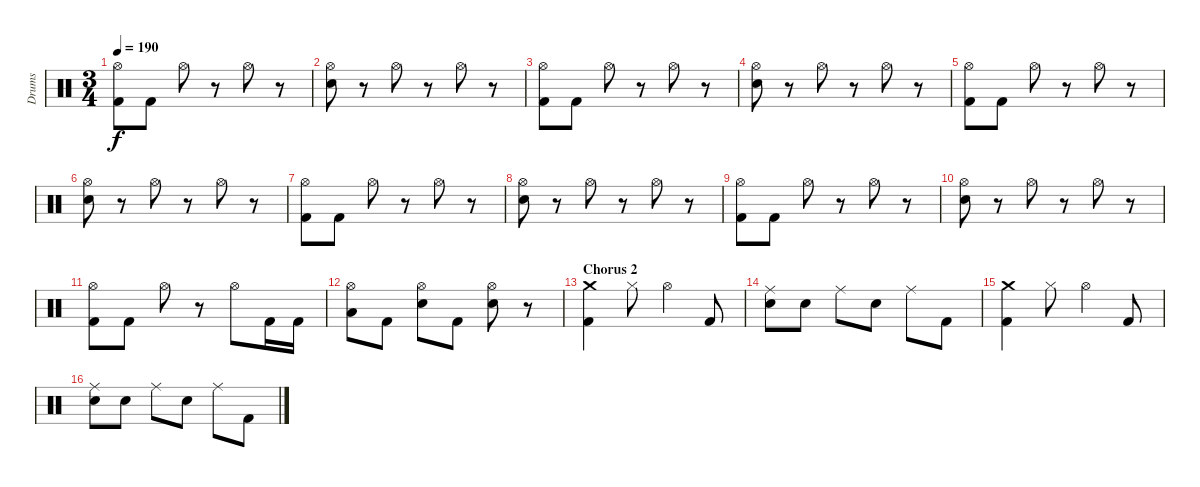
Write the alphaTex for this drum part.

\track ("Drums" "Drums") {instrument percussion}
\staff {score}
\articulation defaults
\ts (3 4)
\tempo 190
\clef neutral
\ks c
("Hi-Hat (open)" "Kick (hit) 2").8{dy f} "Kick (hit) 2".8 "Hi-Hat (open)".8 r.8 "Hi-Hat (open)".8 r.8 |
("Hi-Hat (open)" "Snare (hit) 2").8 r.8 "Hi-Hat (open)".8 r.8 "Hi-Hat (open)".8 r.8 |
("Hi-Hat (open)" "Kick (hit) 2").8 "Kick (hit) 2".8 "Hi-Hat (open)".8 r.8 "Hi-Hat (open)".8 r.8 |
("Hi-Hat (open)" "Snare (hit) 2").8 r.8 "Hi-Hat (open)".8 r.8 "Hi-Hat (open)".8 r.8 |
("Hi-Hat (open)" "Kick (hit) 2").8 "Kick (hit) 2".8 "Hi-Hat (open)".8 r.8 "Hi-Hat (open)".8 r.8 |
("Hi-Hat (open)" "Snare (hit) 2").8 r.8 "Hi-Hat (open)".8 r.8 "Hi-Hat (open)".8 r.8 |
("Hi-Hat (open)" "Kick (hit) 2").8 "Kick (hit) 2".8 "Hi-Hat (open)".8 r.8 "Hi-Hat (open)".8 r.8 |
("Hi-Hat (open)" "Snare (hit) 2").8 r.8 "Hi-Hat (open)".8 r.8 "Hi-Hat (open)".8 r.8 |
("Hi-Hat (open)" "Kick (hit) 2").8 "Kick (hit) 2".8 "Hi-Hat (open)".8 r.8 "Hi-Hat (open)".8 r.8 |
("Hi-Hat (open)" "Snare (hit) 2").8 r.8 "Hi-Hat (open)".8 r.8 "Hi-Hat (open)".8 r.8 |
("Hi-Hat (open)" "Kick (hit) 2").8 "Kick (hit) 2".8 "Hi-Hat (open)".8 r.8 "Hi-Hat (open)".8 "Kick (hit) 2".16 "Kick (hit) 2".16 |
("Hi-Hat (open)" "Low Floor Tom (hit)").8 "Kick (hit) 2".8 ("Hi-Hat (open)" "Snare (hit) 2").8 "Kick (hit) 2".8 ("Hi-Hat (open)" "Snare (hit) 2").8 r.8 |
\section ("" "Chorus 2")
("Crash medium (hit)" "Kick (hit) 2").4 "Hi-Hat (closed)".8 "Hi-Hat (open)".4 "Kick (hit) 2".8 |
("Ride (middle)" "Snare (hit) 2").8 "Snare (hit) 2".8 "Ride (middle)".8 "Snare (hit) 2".8 "Ride (middle)".8 "Kick (hit) 2".8 |
("Crash medium (hit)" "Kick (hit) 2").4 "Hi-Hat (closed)".8 "Hi-Hat (open)".4 "Kick (hit) 2".8 |
("Ride (middle)" "Snare (hit) 2").8 "Snare (hit) 2".8 "Ride (middle)".8 "Snare (hit) 2".8 "Ride (middle)".8 "Kick (hit) 2".8
